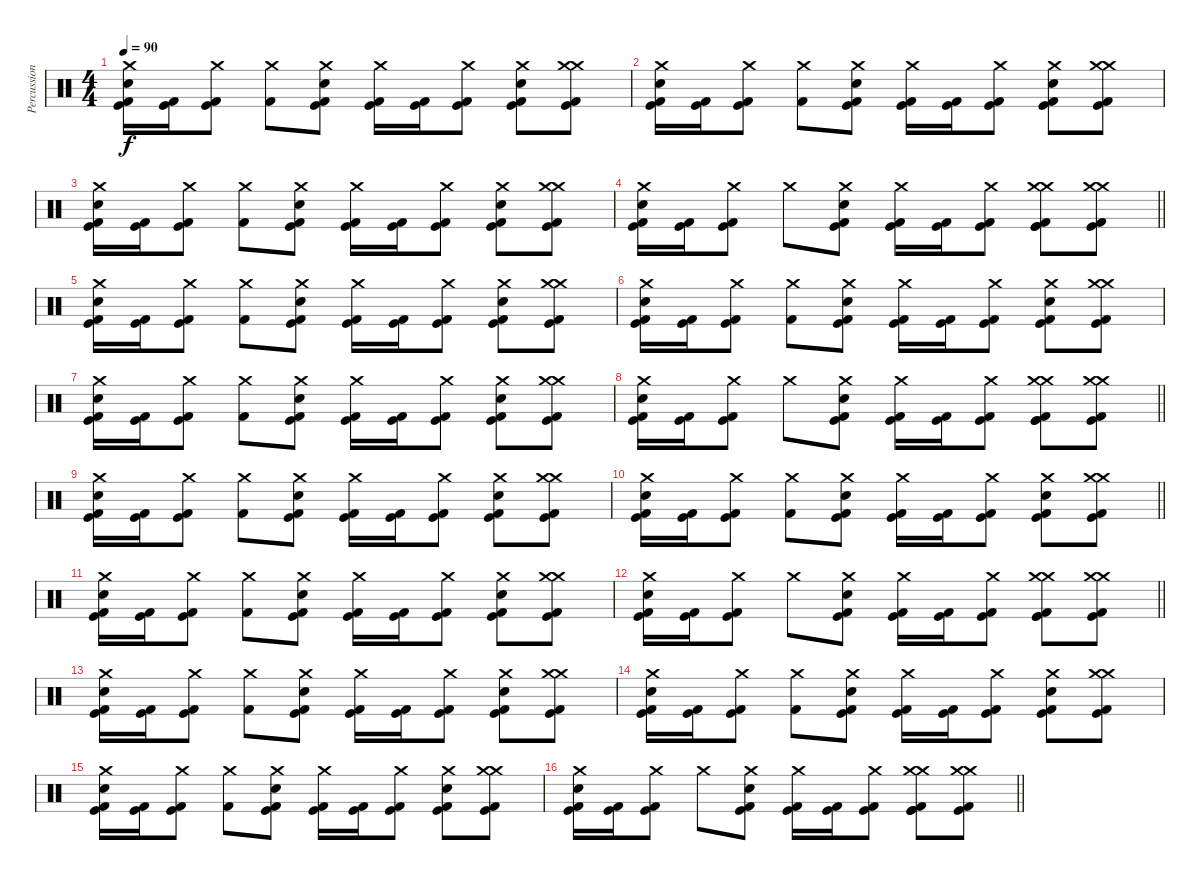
\track ("Percussion" "Percussion") {instrument percussion}
\staff {score}
\articulation defaults
\ts (4 4)
\tempo 90
\clef neutral
\ks c
("Crash medium (hit)" "Snare (hit) 2" "Kick (hit)" "Kick (hit) 2").16{dy f} ("Kick (hit)" "Kick (hit) 2").16 ("Crash medium (hit)" "Kick (hit)" "Kick (hit) 2").8 ("Crash medium (hit)" "Kick (hit) 2").8 ("Crash medium (hit)" "Snare (hit) 2" "Kick (hit)" "Kick (hit) 2").8 ("Crash medium (hit)" "Kick (hit)" "Kick (hit) 2").16 ("Kick (hit)" "Kick (hit) 2").16 ("Crash medium (hit)" "Kick (hit)" "Kick (hit) 2").8 ("Crash medium (hit)" "Snare (hit) 2" "Kick (hit)" "Kick (hit) 2").8 ("Crash medium (hit)" "Crash medium (hit)" "Kick (hit)" "Kick (hit) 2").8 |
("Crash medium (hit)" "Snare (hit) 2" "Kick (hit)" "Kick (hit) 2").16 ("Kick (hit)" "Kick (hit) 2").16 ("Crash medium (hit)" "Kick (hit)" "Kick (hit) 2").8 ("Crash medium (hit)" "Kick (hit) 2").8 ("Crash medium (hit)" "Snare (hit) 2" "Kick (hit)" "Kick (hit) 2").8 ("Crash medium (hit)" "Kick (hit)" "Kick (hit) 2").16 ("Kick (hit)" "Kick (hit) 2").16 ("Crash medium (hit)" "Kick (hit)" "Kick (hit) 2").8 ("Crash medium (hit)" "Snare (hit) 2" "Kick (hit)" "Kick (hit) 2").8 ("Crash medium (hit)" "Crash medium (hit)" "Kick (hit)" "Kick (hit) 2").8 |
("Crash medium (hit)" "Snare (hit) 2" "Kick (hit)" "Kick (hit) 2").16 ("Kick (hit)" "Kick (hit) 2").16 ("Crash medium (hit)" "Kick (hit)" "Kick (hit) 2").8 ("Crash medium (hit)" "Kick (hit) 2").8 ("Crash medium (hit)" "Snare (hit) 2" "Kick (hit)" "Kick (hit) 2").8 ("Crash medium (hit)" "Kick (hit)" "Kick (hit) 2").16 ("Kick (hit)" "Kick (hit) 2").16 ("Crash medium (hit)" "Kick (hit)" "Kick (hit) 2").8 ("Crash medium (hit)" "Snare (hit) 2" "Kick (hit)" "Kick (hit) 2").8 ("Crash medium (hit)" "Crash medium (hit)" "Kick (hit)" "Kick (hit) 2").8 |
\barLineRight lightlight
("Crash medium (hit)" "Snare (hit) 2" "Kick (hit)" "Kick (hit) 2").16 ("Kick (hit)" "Kick (hit) 2").16 ("Crash medium (hit)" "Kick (hit)" "Kick (hit) 2").8 "Crash medium (hit)".8 ("Crash medium (hit)" "Snare (hit) 2" "Kick (hit)" "Kick (hit) 2").8 ("Crash medium (hit)" "Kick (hit)" "Kick (hit) 2").16 ("Kick (hit)" "Kick (hit) 2").16 ("Crash medium (hit)" "Kick (hit)" "Kick (hit) 2").8 ("Crash medium (hit)" "Crash medium (hit)" "Kick (hit)" "Kick (hit)" "Kick (hit) 2").8 ("Crash medium (hit)" "Crash medium (hit)" "Kick (hit)" "Kick (hit) 2").8 |
("Crash medium (hit)" "Snare (hit) 2" "Kick (hit)" "Kick (hit) 2").16 ("Kick (hit)" "Kick (hit) 2").16 ("Crash medium (hit)" "Kick (hit)" "Kick (hit) 2").8 ("Crash medium (hit)" "Kick (hit) 2").8 ("Crash medium (hit)" "Snare (hit) 2" "Kick (hit)" "Kick (hit) 2").8 ("Crash medium (hit)" "Kick (hit)" "Kick (hit) 2").16 ("Kick (hit)" "Kick (hit) 2").16 ("Crash medium (hit)" "Kick (hit)" "Kick (hit) 2").8 ("Crash medium (hit)" "Snare (hit) 2" "Kick (hit)" "Kick (hit) 2").8 ("Crash medium (hit)" "Crash medium (hit)" "Kick (hit)" "Kick (hit) 2").8 |
("Crash medium (hit)" "Snare (hit) 2" "Kick (hit)" "Kick (hit) 2").16 ("Kick (hit)" "Kick (hit) 2").16 ("Crash medium (hit)" "Kick (hit)" "Kick (hit) 2").8 ("Crash medium (hit)" "Kick (hit) 2").8 ("Crash medium (hit)" "Snare (hit) 2" "Kick (hit)" "Kick (hit) 2").8 ("Crash medium (hit)" "Kick (hit)" "Kick (hit) 2").16 ("Kick (hit)" "Kick (hit) 2").16 ("Crash medium (hit)" "Kick (hit)" "Kick (hit) 2").8 ("Crash medium (hit)" "Snare (hit) 2" "Kick (hit)" "Kick (hit) 2").8 ("Crash medium (hit)" "Crash medium (hit)" "Kick (hit)" "Kick (hit) 2").8 |
("Crash medium (hit)" "Snare (hit) 2" "Kick (hit)" "Kick (hit) 2").16 ("Kick (hit)" "Kick (hit) 2").16 ("Crash medium (hit)" "Kick (hit)" "Kick (hit) 2").8 ("Crash medium (hit)" "Kick (hit) 2").8 ("Crash medium (hit)" "Snare (hit) 2" "Kick (hit)" "Kick (hit) 2").8 ("Crash medium (hit)" "Kick (hit)" "Kick (hit) 2").16 ("Kick (hit)" "Kick (hit) 2").16 ("Crash medium (hit)" "Kick (hit)" "Kick (hit) 2").8 ("Crash medium (hit)" "Snare (hit) 2" "Kick (hit)" "Kick (hit) 2").8 ("Crash medium (hit)" "Crash medium (hit)" "Kick (hit)" "Kick (hit) 2").8 |
\barLineRight lightlight
("Crash medium (hit)" "Snare (hit) 2" "Kick (hit)" "Kick (hit) 2").16 ("Kick (hit)" "Kick (hit) 2").16 ("Crash medium (hit)" "Kick (hit)" "Kick (hit) 2").8 "Crash medium (hit)".8 ("Crash medium (hit)" "Snare (hit) 2" "Kick (hit)" "Kick (hit) 2").8 ("Crash medium (hit)" "Kick (hit)" "Kick (hit) 2").16 ("Kick (hit)" "Kick (hit) 2").16 ("Crash medium (hit)" "Kick (hit)" "Kick (hit) 2").8 ("Crash medium (hit)" "Crash medium (hit)" "Kick (hit)" "Kick (hit)" "Kick (hit) 2").8 ("Crash medium (hit)" "Crash medium (hit)" "Kick (hit)" "Kick (hit) 2").8 |
("Crash medium (hit)" "Snare (hit) 2" "Kick (hit)" "Kick (hit) 2").16 ("Kick (hit)" "Kick (hit) 2").16 ("Crash medium (hit)" "Kick (hit)" "Kick (hit) 2").8 ("Crash medium (hit)" "Kick (hit) 2").8 ("Crash medium (hit)" "Snare (hit) 2" "Kick (hit)" "Kick (hit) 2").8 ("Crash medium (hit)" "Kick (hit)" "Kick (hit) 2").16 ("Kick (hit)" "Kick (hit) 2").16 ("Crash medium (hit)" "Kick (hit)" "Kick (hit) 2").8 ("Crash medium (hit)" "Snare (hit) 2" "Kick (hit)" "Kick (hit) 2").8 ("Crash medium (hit)" "Crash medium (hit)" "Kick (hit)" "Kick (hit) 2").8 |
\barLineRight lightlight
("Crash medium (hit)" "Snare (hit) 2" "Kick (hit)" "Kick (hit) 2").16 ("Kick (hit)" "Kick (hit) 2").16 ("Crash medium (hit)" "Kick (hit)" "Kick (hit) 2").8 ("Crash medium (hit)" "Kick (hit) 2").8 ("Crash medium (hit)" "Snare (hit) 2" "Kick (hit)" "Kick (hit) 2").8 ("Crash medium (hit)" "Kick (hit)" "Kick (hit) 2").16 ("Kick (hit)" "Kick (hit) 2").16 ("Crash medium (hit)" "Kick (hit)" "Kick (hit) 2").8 ("Crash medium (hit)" "Snare (hit) 2" "Kick (hit)" "Kick (hit) 2").8 ("Crash medium (hit)" "Crash medium (hit)" "Kick (hit)" "Kick (hit) 2").8 |
\section ("" "")
("Crash medium (hit)" "Snare (hit) 2" "Kick (hit)" "Kick (hit) 2").16 ("Kick (hit)" "Kick (hit) 2").16 ("Crash medium (hit)" "Kick (hit)" "Kick (hit) 2").8 ("Crash medium (hit)" "Kick (hit) 2").8 ("Crash medium (hit)" "Snare (hit) 2" "Kick (hit)" "Kick (hit) 2").8 ("Crash medium (hit)" "Kick (hit)" "Kick (hit) 2").16 ("Kick (hit)" "Kick (hit) 2").16 ("Crash medium (hit)" "Kick (hit)" "Kick (hit) 2").8 ("Crash medium (hit)" "Snare (hit) 2" "Kick (hit)" "Kick (hit) 2").8 ("Crash medium (hit)" "Crash medium (hit)" "Kick (hit)" "Kick (hit) 2").8 |
\barLineRight lightlight
("Crash medium (hit)" "Snare (hit) 2" "Kick (hit)" "Kick (hit) 2").16 ("Kick (hit)" "Kick (hit) 2").16 ("Crash medium (hit)" "Kick (hit)" "Kick (hit) 2").8 "Crash medium (hit)".8 ("Crash medium (hit)" "Snare (hit) 2" "Kick (hit)" "Kick (hit) 2").8 ("Crash medium (hit)" "Kick (hit)" "Kick (hit) 2").16 ("Kick (hit)" "Kick (hit) 2").16 ("Crash medium (hit)" "Kick (hit)" "Kick (hit) 2").8 ("Crash medium (hit)" "Crash medium (hit)" "Kick (hit)" "Kick (hit)" "Kick (hit) 2").8 ("Crash medium (hit)" "Crash medium (hit)" "Kick (hit)" "Kick (hit) 2").8 |
("Crash medium (hit)" "Snare (hit) 2" "Kick (hit)" "Kick (hit) 2").16 ("Kick (hit)" "Kick (hit) 2").16 ("Crash medium (hit)" "Kick (hit)" "Kick (hit) 2").8 ("Crash medium (hit)" "Kick (hit) 2").8 ("Crash medium (hit)" "Snare (hit) 2" "Kick (hit)" "Kick (hit) 2").8 ("Crash medium (hit)" "Kick (hit)" "Kick (hit) 2").16 ("Kick (hit)" "Kick (hit) 2").16 ("Crash medium (hit)" "Kick (hit)" "Kick (hit) 2").8 ("Crash medium (hit)" "Snare (hit) 2" "Kick (hit)" "Kick (hit) 2").8 ("Crash medium (hit)" "Crash medium (hit)" "Kick (hit)" "Kick (hit) 2").8 |
("Crash medium (hit)" "Snare (hit) 2" "Kick (hit)" "Kick (hit) 2").16 ("Kick (hit)" "Kick (hit) 2").16 ("Crash medium (hit)" "Kick (hit)" "Kick (hit) 2").8 ("Crash medium (hit)" "Kick (hit) 2").8 ("Crash medium (hit)" "Snare (hit) 2" "Kick (hit)" "Kick (hit) 2").8 ("Crash medium (hit)" "Kick (hit)" "Kick (hit) 2").16 ("Kick (hit)" "Kick (hit) 2").16 ("Crash medium (hit)" "Kick (hit)" "Kick (hit) 2").8 ("Crash medium (hit)" "Snare (hit) 2" "Kick (hit)" "Kick (hit) 2").8 ("Crash medium (hit)" "Crash medium (hit)" "Kick (hit)" "Kick (hit) 2").8 |
("Crash medium (hit)" "Snare (hit) 2" "Kick (hit)" "Kick (hit) 2").16 ("Kick (hit)" "Kick (hit) 2").16 ("Crash medium (hit)" "Kick (hit)" "Kick (hit) 2").8 ("Crash medium (hit)" "Kick (hit) 2").8 ("Crash medium (hit)" "Snare (hit) 2" "Kick (hit)" "Kick (hit) 2").8 ("Crash medium (hit)" "Kick (hit)" "Kick (hit) 2").16 ("Kick (hit)" "Kick (hit) 2").16 ("Crash medium (hit)" "Kick (hit)" "Kick (hit) 2").8 ("Crash medium (hit)" "Snare (hit) 2" "Kick (hit)" "Kick (hit) 2").8 ("Crash medium (hit)" "Crash medium (hit)" "Kick (hit)" "Kick (hit) 2").8 |
\barLineRight lightlight
("Crash medium (hit)" "Snare (hit) 2" "Kick (hit)" "Kick (hit) 2").16 ("Kick (hit)" "Kick (hit) 2").16 ("Crash medium (hit)" "Kick (hit)" "Kick (hit) 2").8 "Crash medium (hit)".8 ("Crash medium (hit)" "Snare (hit) 2" "Kick (hit)" "Kick (hit) 2").8 ("Crash medium (hit)" "Kick (hit)" "Kick (hit) 2").16 ("Kick (hit)" "Kick (hit) 2").16 ("Crash medium (hit)" "Kick (hit)" "Kick (hit) 2").8 ("Crash medium (hit)" "Crash medium (hit)" "Kick (hit)" "Kick (hit)" "Kick (hit) 2").8 ("Crash medium (hit)" "Crash medium (hit)" "Kick (hit)" "Kick (hit) 2").8
